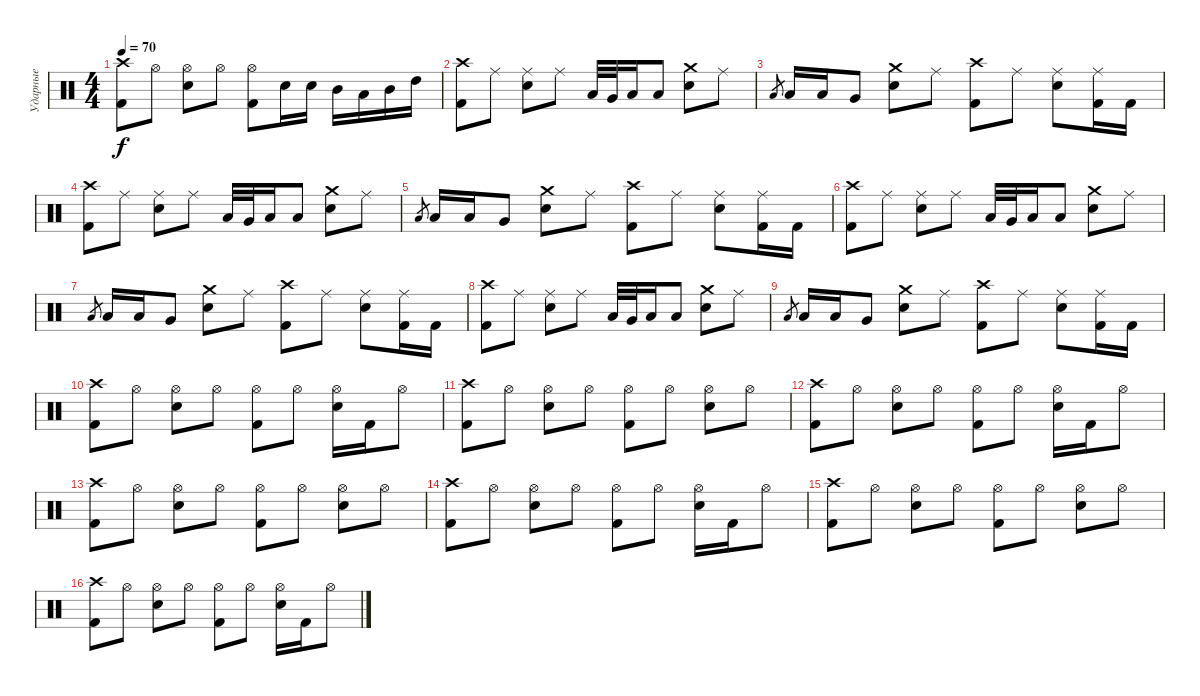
\track ("Ударные" "Ударные") {instrument percussion}
\staff {score}
\articulation defaults
\ts (4 4)
\tempo 70
\clef neutral
\ks c
("Crash high (hit)" "Kick (hit) 2").8{dy f} "Hi-Hat (open)".8 ("Hi-Hat (open)" "Snare (hit) 2").8 "Hi-Hat (open)".8 ("Hi-Hat (open)" "Kick (hit) 2").8 "Snare (hit) 2".16 "Snare (hit) 2".16 "Mid Tom (hit)".16 "Low Tom (hit)".16 "Mid Tom (hit)".16 "High Tom (hit)".16 |
("Crash high (hit)" "Kick (hit) 2").8 "Ride (middle)".8 ("Ride (middle)" "Snare (hit) 2").8 "Ride (middle)".8 "Low Tom (hit)".32 "Very Low Tom (hit)".32 "Low Tom (hit)".16 "Low Tom (hit)".8 ("Crash medium (hit)" "Snare (hit) 2").8 "Ride (middle)".8 |
"Low Tom (hit)".8{gr} "Low Tom (hit)".16 "Low Tom (hit)".16 "Very Low Tom (hit)".8 ("Crash medium (hit)" "Snare (hit) 2").8 "Ride (middle)".8 ("Crash high (hit)" "Kick (hit) 2").8 "Ride (middle)".8 ("Ride (middle)" "Snare (hit) 2").8 ("Ride (middle)" "Kick (hit) 2").16 "Kick (hit) 2".16 |
("Crash high (hit)" "Kick (hit) 2").8 "Ride (middle)".8 ("Ride (middle)" "Snare (hit) 2").8 "Ride (middle)".8 "Low Tom (hit)".32 "Very Low Tom (hit)".32 "Low Tom (hit)".16 "Low Tom (hit)".8 ("Crash medium (hit)" "Snare (hit) 2").8 "Ride (middle)".8 |
"Low Tom (hit)".8{gr} "Low Tom (hit)".16 "Low Tom (hit)".16 "Very Low Tom (hit)".8 ("Crash medium (hit)" "Snare (hit) 2").8 "Ride (middle)".8 ("Crash high (hit)" "Kick (hit) 2").8 "Ride (middle)".8 ("Ride (middle)" "Snare (hit) 2").8 ("Ride (middle)" "Kick (hit) 2").16 "Kick (hit) 2".16 |
("Crash high (hit)" "Kick (hit) 2").8 "Ride (middle)".8 ("Ride (middle)" "Snare (hit) 2").8 "Ride (middle)".8 "Low Tom (hit)".32 "Very Low Tom (hit)".32 "Low Tom (hit)".16 "Low Tom (hit)".8 ("Crash medium (hit)" "Snare (hit) 2").8 "Ride (middle)".8 |
"Low Tom (hit)".8{gr} "Low Tom (hit)".16 "Low Tom (hit)".16 "Very Low Tom (hit)".8 ("Crash medium (hit)" "Snare (hit) 2").8 "Ride (middle)".8 ("Crash high (hit)" "Kick (hit) 2").8 "Ride (middle)".8 ("Ride (middle)" "Snare (hit) 2").8 ("Ride (middle)" "Kick (hit) 2").16 "Kick (hit) 2".16 |
("Crash high (hit)" "Kick (hit) 2").8 "Ride (middle)".8 ("Ride (middle)" "Snare (hit) 2").8 "Ride (middle)".8 "Low Tom (hit)".32 "Very Low Tom (hit)".32 "Low Tom (hit)".16 "Low Tom (hit)".8 ("Crash medium (hit)" "Snare (hit) 2").8 "Ride (middle)".8 |
"Low Tom (hit)".8{gr} "Low Tom (hit)".16 "Low Tom (hit)".16 "Very Low Tom (hit)".8 ("Crash medium (hit)" "Snare (hit) 2").8 "Ride (middle)".8 ("Crash high (hit)" "Kick (hit) 2").8 "Ride (middle)".8 ("Ride (middle)" "Snare (hit) 2").8 ("Ride (middle)" "Kick (hit) 2").16 "Kick (hit) 2".16 |
("Crash high (hit)" "Kick (hit) 2").8 "Hi-Hat (open)".8 ("Hi-Hat (open)" "Snare (hit) 2").8 "Hi-Hat (open)".8 ("Hi-Hat (open)" "Kick (hit) 2").8 "Hi-Hat (open)".8 ("Hi-Hat (open)" "Snare (hit) 2").16 "Kick (hit) 2".16 "Hi-Hat (open)".8 |
("Crash high (hit)" "Kick (hit) 2").8 "Hi-Hat (open)".8 ("Hi-Hat (open)" "Snare (hit) 2").8 "Hi-Hat (open)".8 ("Hi-Hat (open)" "Kick (hit) 2").8 "Hi-Hat (open)".8 ("Hi-Hat (open)" "Snare (hit) 2").8 "Hi-Hat (open)".8 |
("Crash high (hit)" "Kick (hit) 2").8 "Hi-Hat (open)".8 ("Hi-Hat (open)" "Snare (hit) 2").8 "Hi-Hat (open)".8 ("Hi-Hat (open)" "Kick (hit) 2").8 "Hi-Hat (open)".8 ("Hi-Hat (open)" "Snare (hit) 2").16 "Kick (hit) 2".16 "Hi-Hat (open)".8 |
("Crash high (hit)" "Kick (hit) 2").8 "Hi-Hat (open)".8 ("Hi-Hat (open)" "Snare (hit) 2").8 "Hi-Hat (open)".8 ("Hi-Hat (open)" "Kick (hit) 2").8 "Hi-Hat (open)".8 ("Hi-Hat (open)" "Snare (hit) 2").8 "Hi-Hat (open)".8 |
("Crash high (hit)" "Kick (hit) 2").8 "Hi-Hat (open)".8 ("Hi-Hat (open)" "Snare (hit) 2").8 "Hi-Hat (open)".8 ("Hi-Hat (open)" "Kick (hit) 2").8 "Hi-Hat (open)".8 ("Hi-Hat (open)" "Snare (hit) 2").16 "Kick (hit) 2".16 "Hi-Hat (open)".8 |
("Crash high (hit)" "Kick (hit) 2").8 "Hi-Hat (open)".8 ("Hi-Hat (open)" "Snare (hit) 2").8 "Hi-Hat (open)".8 ("Hi-Hat (open)" "Kick (hit) 2").8 "Hi-Hat (open)".8 ("Hi-Hat (open)" "Snare (hit) 2").8 "Hi-Hat (open)".8 |
("Crash high (hit)" "Kick (hit) 2").8 "Hi-Hat (open)".8 ("Hi-Hat (open)" "Snare (hit) 2").8 "Hi-Hat (open)".8 ("Hi-Hat (open)" "Kick (hit) 2").8 "Hi-Hat (open)".8 ("Hi-Hat (open)" "Snare (hit) 2").16 "Kick (hit) 2".16 "Hi-Hat (open)".8
